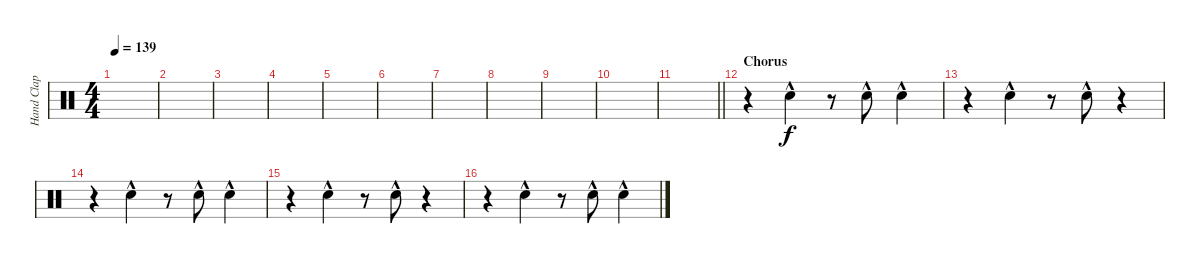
\track ("Hand Clap Effect" "Hand Clap ") {instrument percussion}
\staff {score}
\articulation defaults
\ts (4 4)
\tempo 139
\clef neutral
\ks c
|
|
|
|
|
|
|
|
|
|
\barLineRight lightlight
|
\section ("" "Chorus")
r.4 "Hand Clap (hit)"{hac}.4 r.8 "Hand Clap (hit)"{hac}.8 "Hand Clap (hit)"{hac}.4 |
r.4 "Hand Clap (hit)"{hac}.4 r.8 "Hand Clap (hit)"{hac}.8 r.4 |
r.4 "Hand Clap (hit)"{hac}.4 r.8 "Hand Clap (hit)"{hac}.8 "Hand Clap (hit)"{hac}.4 |
r.4 "Hand Clap (hit)"{hac}.4 r.8 "Hand Clap (hit)"{hac}.8 r.4 |
r.4 "Hand Clap (hit)"{hac}.4 r.8 "Hand Clap (hit)"{hac}.8 "Hand Clap (hit)"{hac}.4
